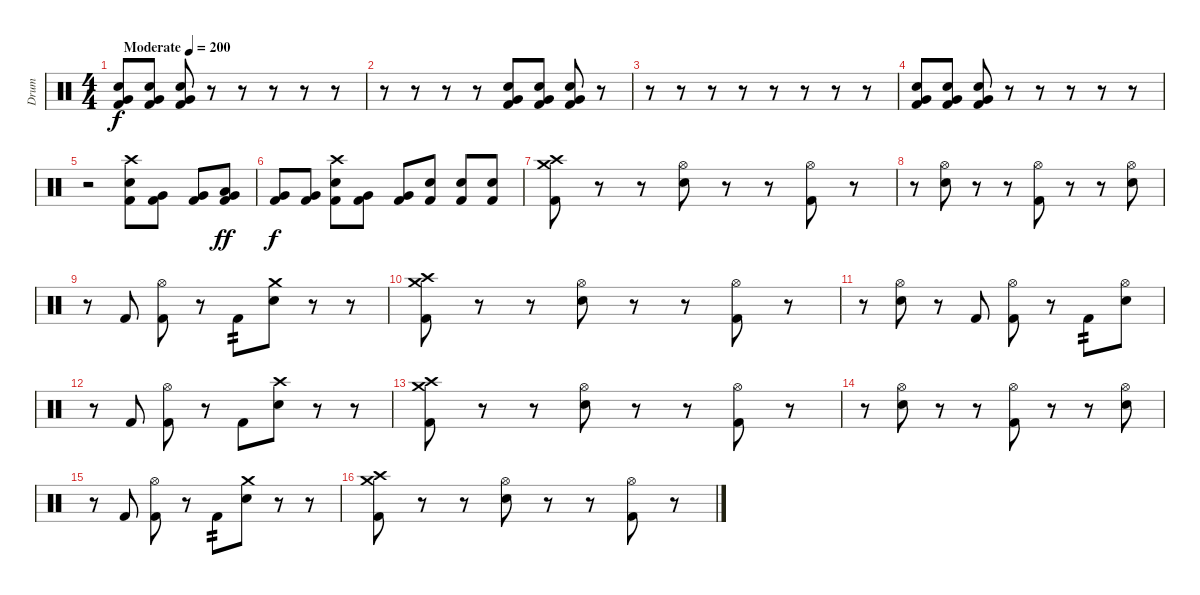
\track ("Drum" "Drum") {instrument percussion}
\staff {score}
\articulation defaults
\ts (4 4)
\tempo (200 "Moderate")
\clef neutral
\ks c
("Very Low Tom (hit)" "Snare (hit) 2" "Kick (hit) 2").8{dy f} ("Very Low Tom (hit)" "Snare (hit) 2" "Kick (hit) 2").8 ("Very Low Tom (hit)" "Snare (hit) 2" "Kick (hit) 2").8 r.8 r.8 r.8 r.8 r.8 |
r.8 r.8 r.8 r.8 ("Very Low Tom (hit)" "Snare (hit) 2" "Kick (hit) 2").8 ("Very Low Tom (hit)" "Snare (hit) 2" "Kick (hit) 2").8 ("Very Low Tom (hit)" "Snare (hit) 2" "Kick (hit) 2").8 r.8 |
r.8 r.8 r.8 r.8 r.8 r.8 r.8 r.8 |
("Very Low Tom (hit)" "Snare (hit) 2" "Kick (hit) 2").8 ("Very Low Tom (hit)" "Snare (hit) 2" "Kick (hit) 2").8 ("Very Low Tom (hit)" "Snare (hit) 2" "Kick (hit) 2").8 r.8 r.8 r.8 r.8 r.8 |
r.2 ("Crash high (hit)" "Snare (hit) 2" "Kick (hit) 2").8 ("Very Low Tom (hit)" "Kick (hit) 2").8 ("Very Low Tom (hit)" "Kick (hit) 2").8 ("Low Tom (hit)" "Very Low Tom (hit)" "Kick (hit) 2").8{dy ff} |
("Very Low Tom (hit)" "Kick (hit) 2").8{dy f} ("Very Low Tom (hit)" "Kick (hit) 2").8 ("Crash high (hit)" "Snare (hit) 2" "Kick (hit) 2").8 ("Very Low Tom (hit)" "Kick (hit) 2").8 ("Very Low Tom (hit)" "Kick (hit) 2").8 ("Snare (hit) 2" "Kick (hit) 2").8 ("Snare (hit) 2" "Kick (hit) 2").8 ("Snare (hit) 2" "Kick (hit) 2").8 |
("Crash medium (hit)" "Crash high (hit)" "Kick (hit) 2").8 r.8 r.8 ("Hi-Hat (open)" "Snare (hit) 2").8 r.8 r.8 ("Hi-Hat (open)" "Kick (hit) 2").8 r.8 |
r.8 ("Hi-Hat (open)" "Snare (hit) 2").8 r.8 r.8 ("Hi-Hat (open)" "Kick (hit) 2").8 r.8 r.8 ("Hi-Hat (open)" "Snare (hit) 2").8 |
r.8 "Kick (hit) 2".8 ("Hi-Hat (open)" "Kick (hit) 2").8 r.8 "Kick (hit) 2".8{tp 2} ("Crash medium (hit)" "Snare (hit) 2").8 r.8 r.8 |
("Crash medium (hit)" "Crash high (hit)" "Kick (hit) 2").8 r.8 r.8 ("Hi-Hat (open)" "Snare (hit) 2").8 r.8 r.8 ("Hi-Hat (open)" "Kick (hit) 2").8 r.8 |
r.8 ("Hi-Hat (open)" "Snare (hit) 2").8 r.8 "Kick (hit) 2".8 ("Hi-Hat (open)" "Kick (hit) 2").8 r.8 "Kick (hit) 2".8{tp 2} ("Hi-Hat (open)" "Snare (hit) 2").8 |
r.8 "Kick (hit) 2".8 ("Hi-Hat (open)" "Kick (hit) 2").8 r.8 "Kick (hit) 2".8 ("Crash high (hit)" "Snare (hit) 2").8 r.8 r.8 |
("Crash medium (hit)" "Crash high (hit)" "Kick (hit) 2").8 r.8 r.8 ("Hi-Hat (open)" "Snare (hit) 2").8 r.8 r.8 ("Hi-Hat (open)" "Kick (hit) 2").8 r.8 |
r.8 ("Hi-Hat (open)" "Snare (hit) 2").8 r.8 r.8 ("Hi-Hat (open)" "Kick (hit) 2").8 r.8 r.8 ("Hi-Hat (open)" "Snare (hit) 2").8 |
r.8 "Kick (hit) 2".8 ("Hi-Hat (open)" "Kick (hit) 2").8 r.8 "Kick (hit) 2".8{tp 2} ("Crash medium (hit)" "Snare (hit) 2").8 r.8 r.8 |
("Crash medium (hit)" "Crash high (hit)" "Kick (hit) 2").8 r.8 r.8 ("Hi-Hat (open)" "Snare (hit) 2").8 r.8 r.8 ("Hi-Hat (open)" "Kick (hit) 2").8 r.8
